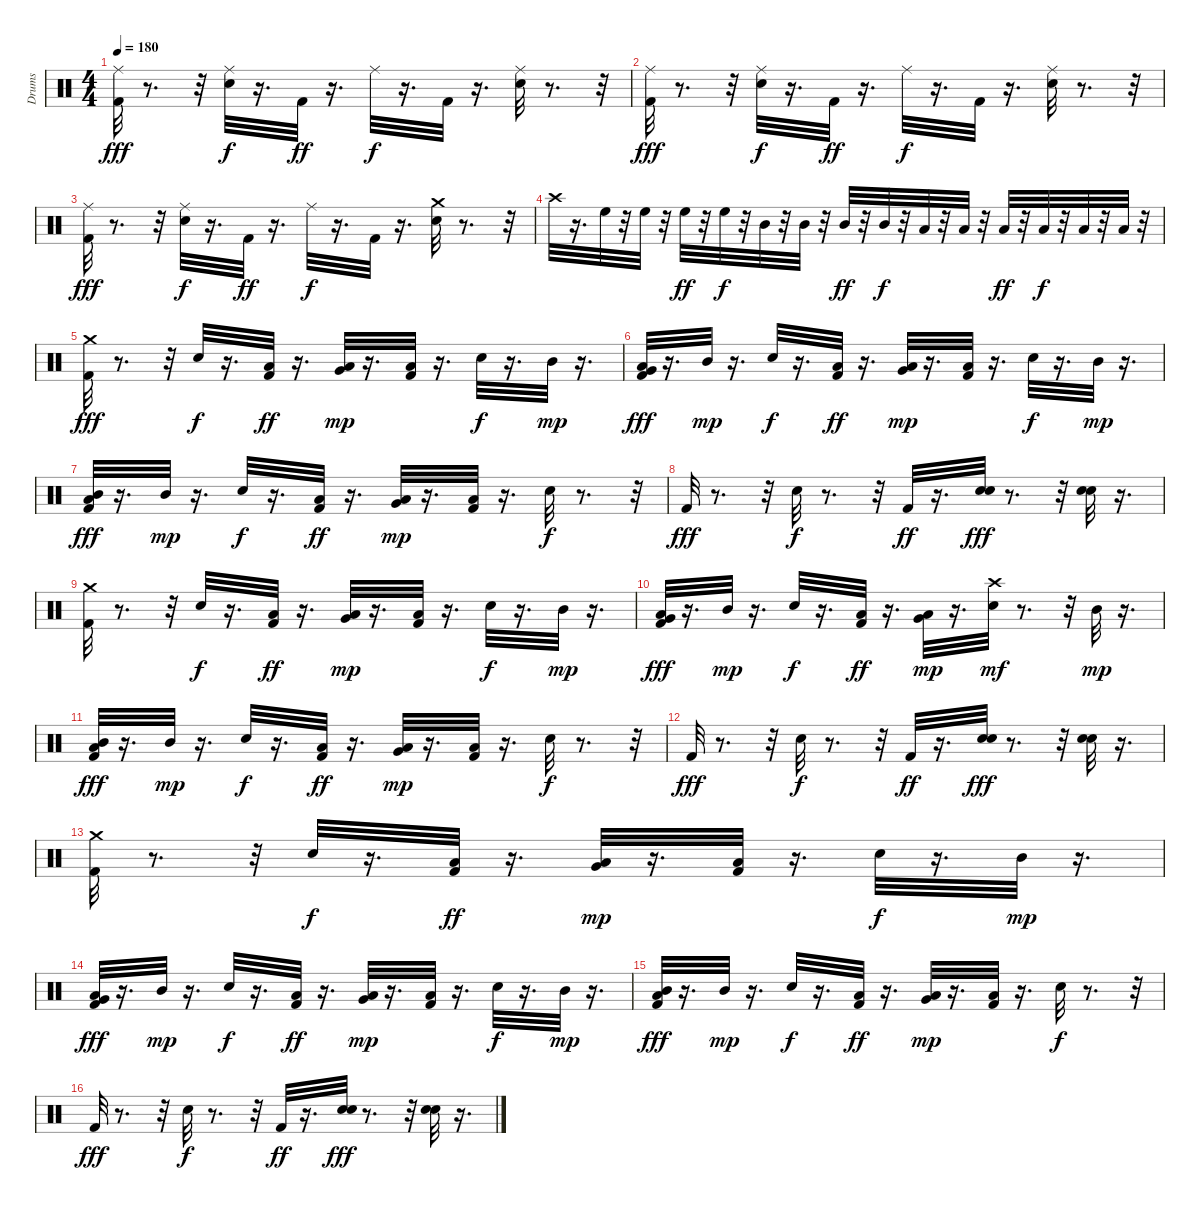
\track ("Drums" "Drums") {instrument percussion}
\staff {score}
\articulation defaults
\ts (4 4)
\tempo 180
\clef neutral
\ks c
("Ride (middle)" "Kick (hit) 2").32{dy fff} r.8{d} r.32 ("Ride (middle)" "Snare (hit) 2").32{dy f} r.16{d} "Kick (hit) 2".32{dy ff} r.16{d} "Ride (middle)".32{dy f} r.16{d} "Kick (hit) 2".32 r.16{d} ("Ride (middle)" "Snare (hit) 2").32 r.8{d} r.32 |
("Ride (middle)" "Kick (hit) 2").32{dy fff} r.8{d} r.32 ("Ride (middle)" "Snare (hit) 2").32{dy f} r.16{d} "Kick (hit) 2".32{dy ff} r.16{d} "Ride (middle)".32{dy f} r.16{d} "Kick (hit) 2".32 r.16{d} ("Ride (middle)" "Snare (hit) 2").32 r.8{d} r.32 |
("Ride (middle)" "Kick (hit) 2").32{dy fff} r.8{d} r.32 ("Ride (middle)" "Snare (hit) 2").32{dy f} r.16{d} "Kick (hit) 2".32{dy ff} r.16{d} "Ride (middle)".32{dy f} r.16{d} "Kick (hit) 2".32 r.16{d} ("Crash medium (hit)" "Snare (hit) 2").32 r.8{d} r.32 |
"Crash high (hit)".32 r.16{d} "High Floor Tom (hit)".32 r.32 "High Floor Tom (hit)".32 r.32 "High Floor Tom (hit)".32{dy ff} r.32 "High Floor Tom (hit)".32{dy f} r.32 "Mid Tom (hit)".32 r.32 "Mid Tom (hit)".32 r.32 "Mid Tom (hit)".32{dy ff} r.32 "Mid Tom (hit)".32{dy f} r.32 "Low Tom (hit)".32 r.32 "Low Tom (hit)".32 r.32 "Low Tom (hit)".32{dy ff} r.32 "Low Tom (hit)".32{dy f} r.32 "Low Floor Tom (hit)".32 r.32 "Low Floor Tom (hit)".32 r.32 |
("Kick (hit) 2" "Crash medium (hit)").32{dy fff} r.8{d} r.32 "Snare (hit) 2".32{dy f} r.16{d} ("Low Tom (hit)" "Kick (hit) 2").32{dy ff} r.16{d} ("Very Low Tom (hit)" "Low Floor Tom (hit)").32{dy mp} r.16{d} ("Low Tom (hit)" "Kick (hit) 2").32 r.16{d} "Snare (hit) 2".32{dy f} r.16{d} "Mid Tom (hit)".32{dy mp} r.16{d} |
("Low Tom (hit)" "Very Low Tom (hit)" "Kick (hit) 2").32{dy fff} r.16{d} "Mid Tom (hit)".32{dy mp} r.16{d} "Snare (hit) 2".32{dy f} r.16{d} ("Low Tom (hit)" "Kick (hit) 2").32{dy ff} r.16{d} ("Very Low Tom (hit)" "Low Floor Tom (hit)").32{dy mp} r.16{d} ("Low Tom (hit)" "Kick (hit) 2").32 r.16{d} "Snare (hit) 2".32{dy f} r.16{d} "Mid Tom (hit)".32{dy mp} r.16{d} |
("Mid Tom (hit)" "Low Tom (hit)" "Kick (hit) 2").32{dy fff} r.16{d} "Mid Tom (hit)".32{dy mp} r.16{d} "Snare (hit) 2".32{dy f} r.16{d} ("Low Tom (hit)" "Kick (hit) 2").32{dy ff} r.16{d} ("Very Low Tom (hit)" "Low Floor Tom (hit)").32{dy mp} r.16{d} ("Low Tom (hit)" "Kick (hit) 2").32 r.16{d} "Snare (hit) 2".32{dy f} r.8{d} r.32 |
"Kick (hit) 2".32{dy fff} r.8{d} r.32 "Snare (hit) 2".32{dy f} r.8{d} r.32 "Kick (hit) 2".32{dy ff} r.16{d} ("Electric Snare (hit)" "Snare (hit) 2").32{dy fff} r.8{d} r.32 ("Electric Snare (hit)" "Snare (hit) 2").32 r.16{d} |
("Kick (hit) 2" "Crash medium (hit)").32 r.8{d} r.32 "Snare (hit) 2".32{dy f} r.16{d} ("Low Tom (hit)" "Kick (hit) 2").32{dy ff} r.16{d} ("Very Low Tom (hit)" "Low Floor Tom (hit)").32{dy mp} r.16{d} ("Low Tom (hit)" "Kick (hit) 2").32 r.16{d} "Snare (hit) 2".32{dy f} r.16{d} "Mid Tom (hit)".32{dy mp} r.16{d} |
("Low Tom (hit)" "Very Low Tom (hit)" "Kick (hit) 2").32{dy fff} r.16{d} "Mid Tom (hit)".32{dy mp} r.16{d} "Snare (hit) 2".32{dy f} r.16{d} ("Low Tom (hit)" "Kick (hit) 2").32{dy ff} r.16{d} ("Very Low Tom (hit)" "Low Floor Tom (hit)").32{dy mp} r.16{d} ("Crash high (hit)" "Snare (hit) 2").32{dy mf} r.8{d} r.32 "Mid Tom (hit)".32{dy mp} r.16{d} |
("Mid Tom (hit)" "Low Tom (hit)" "Kick (hit) 2").32{dy fff} r.16{d} "Mid Tom (hit)".32{dy mp} r.16{d} "Snare (hit) 2".32{dy f} r.16{d} ("Low Tom (hit)" "Kick (hit) 2").32{dy ff} r.16{d} ("Very Low Tom (hit)" "Low Floor Tom (hit)").32{dy mp} r.16{d} ("Low Tom (hit)" "Kick (hit) 2").32 r.16{d} "Snare (hit) 2".32{dy f} r.8{d} r.32 |
"Kick (hit) 2".32{dy fff} r.8{d} r.32 "Snare (hit) 2".32{dy f} r.8{d} r.32 "Kick (hit) 2".32{dy ff} r.16{d} ("Electric Snare (hit)" "Snare (hit) 2").32{dy fff} r.8{d} r.32 ("Electric Snare (hit)" "Snare (hit) 2").32 r.16{d} |
("Kick (hit) 2" "Crash medium (hit)").32 r.8{d} r.32 "Snare (hit) 2".32{dy f} r.16{d} ("Low Tom (hit)" "Kick (hit) 2").32{dy ff} r.16{d} ("Very Low Tom (hit)" "Low Floor Tom (hit)").32{dy mp} r.16{d} ("Low Tom (hit)" "Kick (hit) 2").32 r.16{d} "Snare (hit) 2".32{dy f} r.16{d} "Mid Tom (hit)".32{dy mp} r.16{d} |
("Low Tom (hit)" "Very Low Tom (hit)" "Kick (hit) 2").32{dy fff} r.16{d} "Mid Tom (hit)".32{dy mp} r.16{d} "Snare (hit) 2".32{dy f} r.16{d} ("Low Tom (hit)" "Kick (hit) 2").32{dy ff} r.16{d} ("Very Low Tom (hit)" "Low Floor Tom (hit)").32{dy mp} r.16{d} ("Low Tom (hit)" "Kick (hit) 2").32 r.16{d} "Snare (hit) 2".32{dy f} r.16{d} "Mid Tom (hit)".32{dy mp} r.16{d} |
("Mid Tom (hit)" "Low Tom (hit)" "Kick (hit) 2").32{dy fff} r.16{d} "Mid Tom (hit)".32{dy mp} r.16{d} "Snare (hit) 2".32{dy f} r.16{d} ("Low Tom (hit)" "Kick (hit) 2").32{dy ff} r.16{d} ("Very Low Tom (hit)" "Low Floor Tom (hit)").32{dy mp} r.16{d} ("Low Tom (hit)" "Kick (hit) 2").32 r.16{d} "Snare (hit) 2".32{dy f} r.8{d} r.32 |
"Kick (hit) 2".32{dy fff} r.8{d} r.32 "Snare (hit) 2".32{dy f} r.8{d} r.32 "Kick (hit) 2".32{dy ff} r.16{d} ("Electric Snare (hit)" "Snare (hit) 2").32{dy fff} r.8{d} r.32 ("Electric Snare (hit)" "Snare (hit) 2").32 r.16{d}
